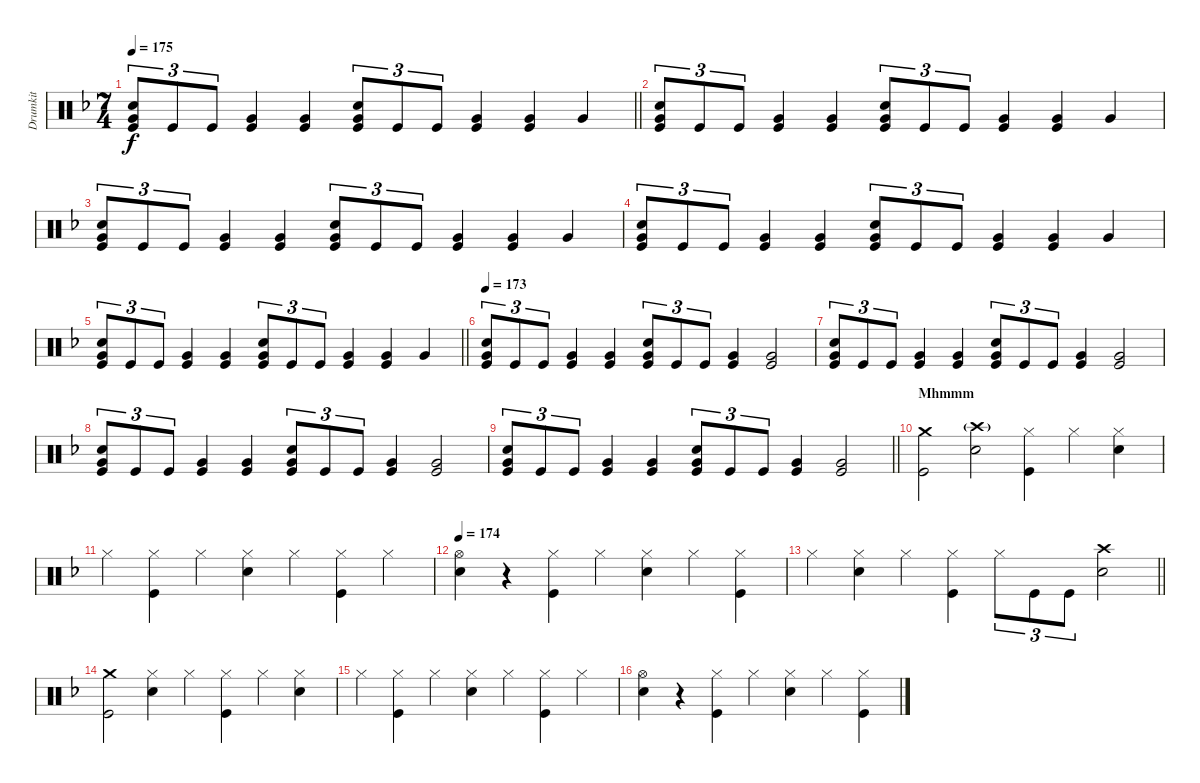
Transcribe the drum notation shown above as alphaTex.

\track ("Drumkit" "Drumkit") {instrument percussion}
\staff {score}
\articulation defaults
\ts (7 4)
\tempo 175
\clef neutral
\barLineRight lightlight
\ks dminor
("Snare (hit) 2" "Very Low Tom (hit)" "Kick (hit)").8{tu (3 2) dy f} "Kick (hit)".8{tu (3 2)} "Kick (hit)".8{tu (3 2)} ("Very Low Tom (hit)" "Kick (hit)").4 ("Very Low Tom (hit)" "Kick (hit)").4 ("Snare (hit) 2" "Very Low Tom (hit)" "Kick (hit)").8{tu (3 2)} "Kick (hit)".8{tu (3 2)} "Kick (hit)".8{tu (3 2)} ("Very Low Tom (hit)" "Kick (hit)").4 ("Very Low Tom (hit)" "Kick (hit)").4 "Very Low Tom (hit)".4 |
("Snare (hit) 2" "Very Low Tom (hit)" "Kick (hit)").8{tu (3 2)} "Kick (hit)".8{tu (3 2)} "Kick (hit)".8{tu (3 2)} ("Very Low Tom (hit)" "Kick (hit)").4 ("Very Low Tom (hit)" "Kick (hit)").4 ("Snare (hit) 2" "Very Low Tom (hit)" "Kick (hit)").8{tu (3 2)} "Kick (hit)".8{tu (3 2)} "Kick (hit)".8{tu (3 2)} ("Very Low Tom (hit)" "Kick (hit)").4 ("Very Low Tom (hit)" "Kick (hit)").4 "Very Low Tom (hit)".4 |
("Snare (hit) 2" "Very Low Tom (hit)" "Kick (hit)").8{tu (3 2)} "Kick (hit)".8{tu (3 2)} "Kick (hit)".8{tu (3 2)} ("Very Low Tom (hit)" "Kick (hit)").4 ("Very Low Tom (hit)" "Kick (hit)").4 ("Snare (hit) 2" "Very Low Tom (hit)" "Kick (hit)").8{tu (3 2)} "Kick (hit)".8{tu (3 2)} "Kick (hit)".8{tu (3 2)} ("Very Low Tom (hit)" "Kick (hit)").4 ("Very Low Tom (hit)" "Kick (hit)").4 "Very Low Tom (hit)".4 |
("Snare (hit) 2" "Very Low Tom (hit)" "Kick (hit)").8{tu (3 2)} "Kick (hit)".8{tu (3 2)} "Kick (hit)".8{tu (3 2)} ("Very Low Tom (hit)" "Kick (hit)").4 ("Very Low Tom (hit)" "Kick (hit)").4 ("Snare (hit) 2" "Very Low Tom (hit)" "Kick (hit)").8{tu (3 2)} "Kick (hit)".8{tu (3 2)} "Kick (hit)".8{tu (3 2)} ("Very Low Tom (hit)" "Kick (hit)").4 ("Very Low Tom (hit)" "Kick (hit)").4 "Very Low Tom (hit)".4 |
\barLineRight lightlight
("Snare (hit) 2" "Very Low Tom (hit)" "Kick (hit)").8{tu (3 2)} "Kick (hit)".8{tu (3 2)} "Kick (hit)".8{tu (3 2)} ("Very Low Tom (hit)" "Kick (hit)").4 ("Very Low Tom (hit)" "Kick (hit)").4 ("Snare (hit) 2" "Very Low Tom (hit)" "Kick (hit)").8{tu (3 2)} "Kick (hit)".8{tu (3 2)} "Kick (hit)".8{tu (3 2)} ("Very Low Tom (hit)" "Kick (hit)").4 ("Very Low Tom (hit)" "Kick (hit)").4 "Very Low Tom (hit)".4 |
\tempo 173
("Snare (hit) 2" "Very Low Tom (hit)" "Kick (hit)").8{tu (3 2)} "Kick (hit)".8{tu (3 2)} "Kick (hit)".8{tu (3 2)} ("Very Low Tom (hit)" "Kick (hit)").4 ("Very Low Tom (hit)" "Kick (hit)").4 ("Snare (hit) 2" "Very Low Tom (hit)" "Kick (hit)").8{tu (3 2)} "Kick (hit)".8{tu (3 2)} "Kick (hit)".8{tu (3 2)} ("Very Low Tom (hit)" "Kick (hit)").4 ("Very Low Tom (hit)" "Kick (hit)").2 |
("Snare (hit) 2" "Very Low Tom (hit)" "Kick (hit)").8{tu (3 2)} "Kick (hit)".8{tu (3 2)} "Kick (hit)".8{tu (3 2)} ("Very Low Tom (hit)" "Kick (hit)").4 ("Very Low Tom (hit)" "Kick (hit)").4 ("Snare (hit) 2" "Very Low Tom (hit)" "Kick (hit)").8{tu (3 2)} "Kick (hit)".8{tu (3 2)} "Kick (hit)".8{tu (3 2)} ("Very Low Tom (hit)" "Kick (hit)").4 ("Very Low Tom (hit)" "Kick (hit)").2 |
("Snare (hit) 2" "Very Low Tom (hit)" "Kick (hit)").8{tu (3 2)} "Kick (hit)".8{tu (3 2)} "Kick (hit)".8{tu (3 2)} ("Very Low Tom (hit)" "Kick (hit)").4 ("Very Low Tom (hit)" "Kick (hit)").4 ("Snare (hit) 2" "Very Low Tom (hit)" "Kick (hit)").8{tu (3 2)} "Kick (hit)".8{tu (3 2)} "Kick (hit)".8{tu (3 2)} ("Very Low Tom (hit)" "Kick (hit)").4 ("Very Low Tom (hit)" "Kick (hit)").2 |
\barLineRight lightlight
("Snare (hit) 2" "Very Low Tom (hit)" "Kick (hit)").8{tu (3 2)} "Kick (hit)".8{tu (3 2)} "Kick (hit)".8{tu (3 2)} ("Very Low Tom (hit)" "Kick (hit)").4 ("Very Low Tom (hit)" "Kick (hit)").4 ("Snare (hit) 2" "Very Low Tom (hit)" "Kick (hit)").8{tu (3 2)} "Kick (hit)".8{tu (3 2)} "Kick (hit)".8{tu (3 2)} ("Very Low Tom (hit)" "Kick (hit)").4 ("Very Low Tom (hit)" "Kick (hit)").2 |
\section ("" "Mhmmm")
("Kick (hit)" "Crash medium (hit)").2 ("Snare (hit) 2" "Crash high (hit)"{g}).2 ("Hi-Hat (closed)" "Kick (hit)").4 "Hi-Hat (closed)".4 ("Hi-Hat (closed)" "Snare (hit) 2").4 |
"Hi-Hat (closed)".4 ("Hi-Hat (closed)" "Kick (hit)").4 "Hi-Hat (closed)".4 ("Hi-Hat (closed)" "Snare (hit) 2").4 "Hi-Hat (closed)".4 ("Hi-Hat (closed)" "Kick (hit)").4 "Hi-Hat (closed)".4 |
\tempo 174
("Hi-Hat (open)" "Snare (hit) 2").4 r.4 ("Hi-Hat (closed)" "Kick (hit)").4 "Hi-Hat (closed)".4 ("Hi-Hat (closed)" "Snare (hit) 2").4 "Hi-Hat (closed)".4 ("Hi-Hat (closed)" "Kick (hit)").4 |
\barLineRight lightlight "Hi-Hat (closed)".4
("Hi-Hat (closed)" "Snare (hit) 2").4 "Hi-Hat (closed)".4 ("Hi-Hat (closed)" "Kick (hit)").4 "Hi-Hat (closed)".8{tu (3 2)} "Kick (hit)".8{tu (3 2)} "Kick (hit)".8{tu (3 2)} ("Snare (hit) 2" "Crash high (hit)").2 |
("Kick (hit)" "Crash medium (hit)").2 ("Snare (hit) 2" "Hi-Hat (closed)").4 "Hi-Hat (closed)".4 ("Hi-Hat (closed)" "Kick (hit)").4 "Hi-Hat (closed)".4 ("Hi-Hat (closed)" "Snare (hit) 2").4 |
"Hi-Hat (closed)".4 ("Hi-Hat (closed)" "Kick (hit)").4 "Hi-Hat (closed)".4 ("Hi-Hat (closed)" "Snare (hit) 2").4 "Hi-Hat (closed)".4 ("Hi-Hat (closed)" "Kick (hit)").4 "Hi-Hat (closed)".4 |
("Hi-Hat (open)" "Snare (hit) 2").4 r.4 ("Hi-Hat (closed)" "Kick (hit)").4 "Hi-Hat (closed)".4 ("Hi-Hat (closed)" "Snare (hit) 2").4 "Hi-Hat (closed)".4 ("Hi-Hat (closed)" "Kick (hit)").4
